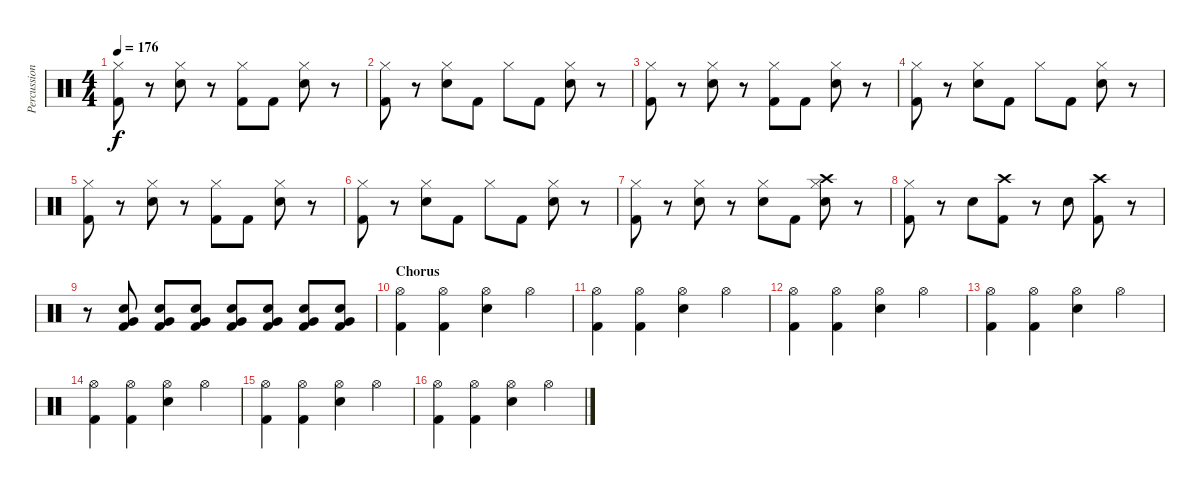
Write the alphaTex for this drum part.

\track ("Percussion" "Percussion") {instrument percussion}
\staff {score}
\articulation defaults
\ts (4 4)
\tempo 176
\clef neutral
\ks c
("Hi-Hat (closed)" "Kick (hit) 2").8{dy f} r.8 ("Hi-Hat (closed)" "Snare (hit) 2").8 r.8 ("Hi-Hat (closed)" "Kick (hit) 2").8 "Kick (hit) 2".8 ("Hi-Hat (closed)" "Snare (hit) 2").8 r.8 |
("Hi-Hat (closed)" "Kick (hit) 2").8 r.8 ("Hi-Hat (closed)" "Snare (hit) 2").8 "Kick (hit) 2".8 "Hi-Hat (closed)".8 "Kick (hit) 2".8 ("Hi-Hat (closed)" "Snare (hit) 2").8 r.8 |
("Hi-Hat (closed)" "Kick (hit) 2").8 r.8 ("Hi-Hat (closed)" "Snare (hit) 2").8 r.8 ("Hi-Hat (closed)" "Kick (hit) 2").8 "Kick (hit) 2".8 ("Hi-Hat (closed)" "Snare (hit) 2").8 r.8 |
("Hi-Hat (closed)" "Kick (hit) 2").8 r.8 ("Hi-Hat (closed)" "Snare (hit) 2").8 "Kick (hit) 2".8 "Hi-Hat (closed)".8 "Kick (hit) 2".8 ("Hi-Hat (closed)" "Snare (hit) 2").8 r.8 |
("Hi-Hat (closed)" "Kick (hit) 2").8 r.8 ("Hi-Hat (closed)" "Snare (hit) 2").8 r.8 ("Hi-Hat (closed)" "Kick (hit) 2").8 "Kick (hit) 2".8 ("Hi-Hat (closed)" "Snare (hit) 2").8 r.8 |
("Hi-Hat (closed)" "Kick (hit) 2").8 r.8 ("Hi-Hat (closed)" "Snare (hit) 2").8 "Kick (hit) 2".8 "Hi-Hat (closed)".8 "Kick (hit) 2".8 ("Hi-Hat (closed)" "Snare (hit) 2").8 r.8 |
("Hi-Hat (closed)" "Kick (hit) 2").8 r.8 ("Hi-Hat (closed)" "Snare (hit) 2").8 r.8 ("Hi-Hat (closed)" "Snare (hit) 2").8 "Kick (hit) 2".8 ("Crash high (hit)" "Hi-Hat (closed)" "Snare (hit) 2").8 r.8 |
("Hi-Hat (closed)" "Kick (hit) 2").8 r.8 "Snare (hit) 2".8 ("Crash high (hit)" "Kick (hit) 2").8 r.8 "Snare (hit) 2".8 ("Crash high (hit)" "Kick (hit) 2").8 r.8 |
r.8{volume 6} ("Snare (hit) 2" "Very Low Tom (hit)" "Kick (hit) 2").8{volume 13} ("Snare (hit) 2" "Very Low Tom (hit)" "Kick (hit) 2").8 ("Snare (hit) 2" "Very Low Tom (hit)" "Kick (hit) 2").8 ("Snare (hit) 2" "Very Low Tom (hit)" "Kick (hit) 2").8 ("Snare (hit) 2" "Very Low Tom (hit)" "Kick (hit) 2").8 ("Snare (hit) 2" "Very Low Tom (hit)" "Kick (hit) 2").8 ("Snare (hit) 2" "Very Low Tom (hit)" "Kick (hit) 2").8 |
\section ("" "Chorus")
("Hi-Hat (open)" "Kick (hit) 2").4 ("Hi-Hat (open)" "Kick (hit) 2").4 ("Hi-Hat (open)" "Snare (hit) 2").4 "Hi-Hat (open)".4 |
("Hi-Hat (open)" "Kick (hit) 2").4 ("Hi-Hat (open)" "Kick (hit) 2").4 ("Hi-Hat (open)" "Snare (hit) 2").4 "Hi-Hat (open)".4 |
("Hi-Hat (open)" "Kick (hit) 2").4 ("Hi-Hat (open)" "Kick (hit) 2").4 ("Hi-Hat (open)" "Snare (hit) 2").4 "Hi-Hat (open)".4 |
("Hi-Hat (open)" "Kick (hit) 2").4 ("Hi-Hat (open)" "Kick (hit) 2").4 ("Hi-Hat (open)" "Snare (hit) 2").4 "Hi-Hat (open)".4 |
("Hi-Hat (open)" "Kick (hit) 2").4 ("Hi-Hat (open)" "Kick (hit) 2").4 ("Hi-Hat (open)" "Snare (hit) 2").4 "Hi-Hat (open)".4 |
("Hi-Hat (open)" "Kick (hit) 2").4 ("Hi-Hat (open)" "Kick (hit) 2").4 ("Hi-Hat (open)" "Snare (hit) 2").4 "Hi-Hat (open)".4 |
("Hi-Hat (open)" "Kick (hit) 2").4 ("Hi-Hat (open)" "Kick (hit) 2").4 ("Hi-Hat (open)" "Snare (hit) 2").4 "Hi-Hat (open)".4
